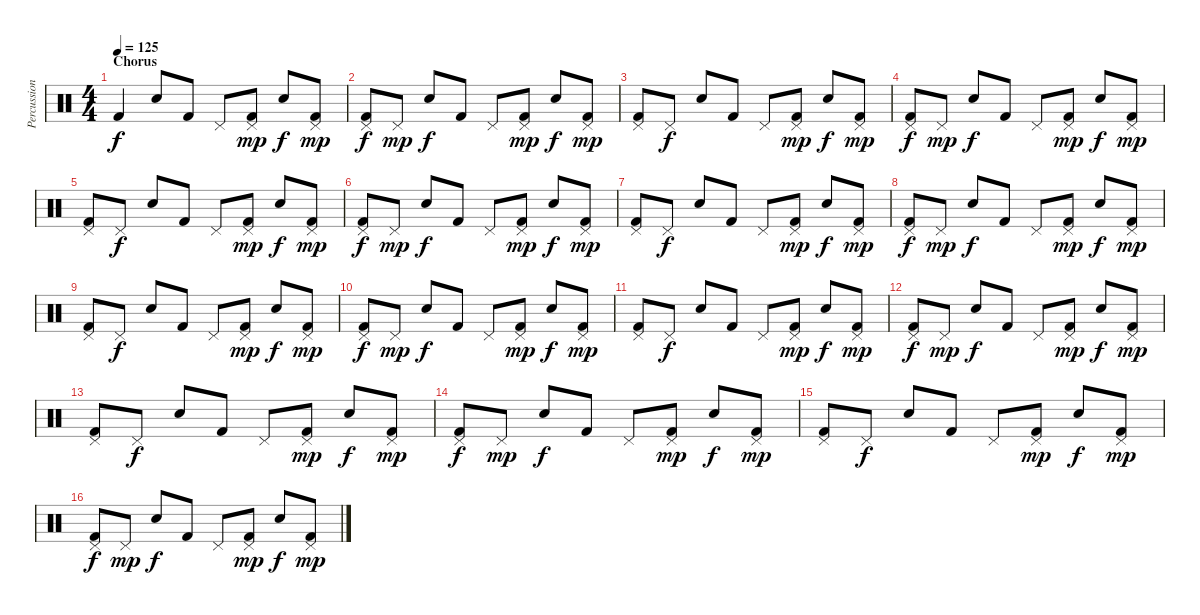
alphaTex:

\track ("Percussion" "Percussion") {instrument percussion}
\staff {score}
\articulation defaults
\ts (4 4)
\section ("" "Chorus")
\tempo 125
\clef neutral
\ks c "Kick (hit) 2".4{dy f} "Electric Snare (hit)".8 "Kick (hit) 2".8 "Pedal Hi-Hat (hit)".8
("Pedal Hi-Hat (hit)" "Kick (hit) 2").8{dy mp} "Electric Snare (hit)".8{dy f} ("Pedal Hi-Hat (hit)" "Kick (hit) 2").8{dy mp} |
("Pedal Hi-Hat (hit)" "Kick (hit) 2").8{dy f} "Pedal Hi-Hat (hit)".8{dy mp} "Electric Snare (hit)".8{dy f} "Kick (hit) 2".8 "Pedal Hi-Hat (hit)".8 ("Pedal Hi-Hat (hit)" "Kick (hit) 2").8{dy mp} "Electric Snare (hit)".8{dy f} ("Pedal Hi-Hat (hit)" "Kick (hit) 2").8{dy mp} |
("Pedal Hi-Hat (hit)" "Kick (hit) 2").8 "Pedal Hi-Hat (hit)".8{dy f} "Electric Snare (hit)".8 "Kick (hit) 2".8 "Pedal Hi-Hat (hit)".8 ("Pedal Hi-Hat (hit)" "Kick (hit) 2").8{dy mp} "Electric Snare (hit)".8{dy f} ("Pedal Hi-Hat (hit)" "Kick (hit) 2").8{dy mp} |
("Pedal Hi-Hat (hit)" "Kick (hit) 2").8{dy f} "Pedal Hi-Hat (hit)".8{dy mp} "Electric Snare (hit)".8{dy f} "Kick (hit) 2".8 "Pedal Hi-Hat (hit)".8 ("Pedal Hi-Hat (hit)" "Kick (hit) 2").8{dy mp} "Electric Snare (hit)".8{dy f} ("Pedal Hi-Hat (hit)" "Kick (hit) 2").8{dy mp} |
("Pedal Hi-Hat (hit)" "Kick (hit) 2").8 "Pedal Hi-Hat (hit)".8{dy f} "Electric Snare (hit)".8 "Kick (hit) 2".8 "Pedal Hi-Hat (hit)".8 ("Pedal Hi-Hat (hit)" "Kick (hit) 2").8{dy mp} "Electric Snare (hit)".8{dy f} ("Pedal Hi-Hat (hit)" "Kick (hit) 2").8{dy mp} |
("Pedal Hi-Hat (hit)" "Kick (hit) 2").8{dy f} "Pedal Hi-Hat (hit)".8{dy mp} "Electric Snare (hit)".8{dy f} "Kick (hit) 2".8 "Pedal Hi-Hat (hit)".8 ("Pedal Hi-Hat (hit)" "Kick (hit) 2").8{dy mp} "Electric Snare (hit)".8{dy f} ("Pedal Hi-Hat (hit)" "Kick (hit) 2").8{dy mp} |
("Pedal Hi-Hat (hit)" "Kick (hit) 2").8 "Pedal Hi-Hat (hit)".8{dy f} "Electric Snare (hit)".8 "Kick (hit) 2".8 "Pedal Hi-Hat (hit)".8 ("Pedal Hi-Hat (hit)" "Kick (hit) 2").8{dy mp} "Electric Snare (hit)".8{dy f} ("Pedal Hi-Hat (hit)" "Kick (hit) 2").8{dy mp} |
("Pedal Hi-Hat (hit)" "Kick (hit) 2").8{dy f} "Pedal Hi-Hat (hit)".8{dy mp} "Electric Snare (hit)".8{dy f} "Kick (hit) 2".8 "Pedal Hi-Hat (hit)".8 ("Pedal Hi-Hat (hit)" "Kick (hit) 2").8{dy mp} "Electric Snare (hit)".8{dy f} ("Pedal Hi-Hat (hit)" "Kick (hit) 2").8{dy mp} |
("Pedal Hi-Hat (hit)" "Kick (hit) 2").8 "Pedal Hi-Hat (hit)".8{dy f} "Electric Snare (hit)".8 "Kick (hit) 2".8 "Pedal Hi-Hat (hit)".8 ("Pedal Hi-Hat (hit)" "Kick (hit) 2").8{dy mp} "Electric Snare (hit)".8{dy f} ("Pedal Hi-Hat (hit)" "Kick (hit) 2").8{dy mp} |
("Pedal Hi-Hat (hit)" "Kick (hit) 2").8{dy f} "Pedal Hi-Hat (hit)".8{dy mp} "Electric Snare (hit)".8{dy f} "Kick (hit) 2".8 "Pedal Hi-Hat (hit)".8 ("Pedal Hi-Hat (hit)" "Kick (hit) 2").8{dy mp} "Electric Snare (hit)".8{dy f} ("Pedal Hi-Hat (hit)" "Kick (hit) 2").8{dy mp} |
("Pedal Hi-Hat (hit)" "Kick (hit) 2").8 "Pedal Hi-Hat (hit)".8{dy f} "Electric Snare (hit)".8 "Kick (hit) 2".8 "Pedal Hi-Hat (hit)".8 ("Pedal Hi-Hat (hit)" "Kick (hit) 2").8{dy mp} "Electric Snare (hit)".8{dy f} ("Pedal Hi-Hat (hit)" "Kick (hit) 2").8{dy mp} |
("Pedal Hi-Hat (hit)" "Kick (hit) 2").8{dy f} "Pedal Hi-Hat (hit)".8{dy mp} "Electric Snare (hit)".8{dy f} "Kick (hit) 2".8 "Pedal Hi-Hat (hit)".8 ("Pedal Hi-Hat (hit)" "Kick (hit) 2").8{dy mp} "Electric Snare (hit)".8{dy f} ("Pedal Hi-Hat (hit)" "Kick (hit) 2").8{dy mp} |
("Pedal Hi-Hat (hit)" "Kick (hit) 2").8 "Pedal Hi-Hat (hit)".8{dy f} "Electric Snare (hit)".8 "Kick (hit) 2".8 "Pedal Hi-Hat (hit)".8 ("Pedal Hi-Hat (hit)" "Kick (hit) 2").8{dy mp} "Electric Snare (hit)".8{dy f} ("Pedal Hi-Hat (hit)" "Kick (hit) 2").8{dy mp} |
("Pedal Hi-Hat (hit)" "Kick (hit) 2").8{dy f} "Pedal Hi-Hat (hit)".8{dy mp} "Electric Snare (hit)".8{dy f} "Kick (hit) 2".8 "Pedal Hi-Hat (hit)".8 ("Pedal Hi-Hat (hit)" "Kick (hit) 2").8{dy mp} "Electric Snare (hit)".8{dy f} ("Pedal Hi-Hat (hit)" "Kick (hit) 2").8{dy mp} |
("Pedal Hi-Hat (hit)" "Kick (hit) 2").8 "Pedal Hi-Hat (hit)".8{dy f} "Electric Snare (hit)".8 "Kick (hit) 2".8 "Pedal Hi-Hat (hit)".8 ("Pedal Hi-Hat (hit)" "Kick (hit) 2").8{dy mp} "Electric Snare (hit)".8{dy f} ("Pedal Hi-Hat (hit)" "Kick (hit) 2").8{dy mp} |
("Pedal Hi-Hat (hit)" "Kick (hit) 2").8{dy f} "Pedal Hi-Hat (hit)".8{dy mp} "Electric Snare (hit)".8{dy f} "Kick (hit) 2".8 "Pedal Hi-Hat (hit)".8 ("Pedal Hi-Hat (hit)" "Kick (hit) 2").8{dy mp} "Electric Snare (hit)".8{dy f} ("Pedal Hi-Hat (hit)" "Kick (hit) 2").8{dy mp}
